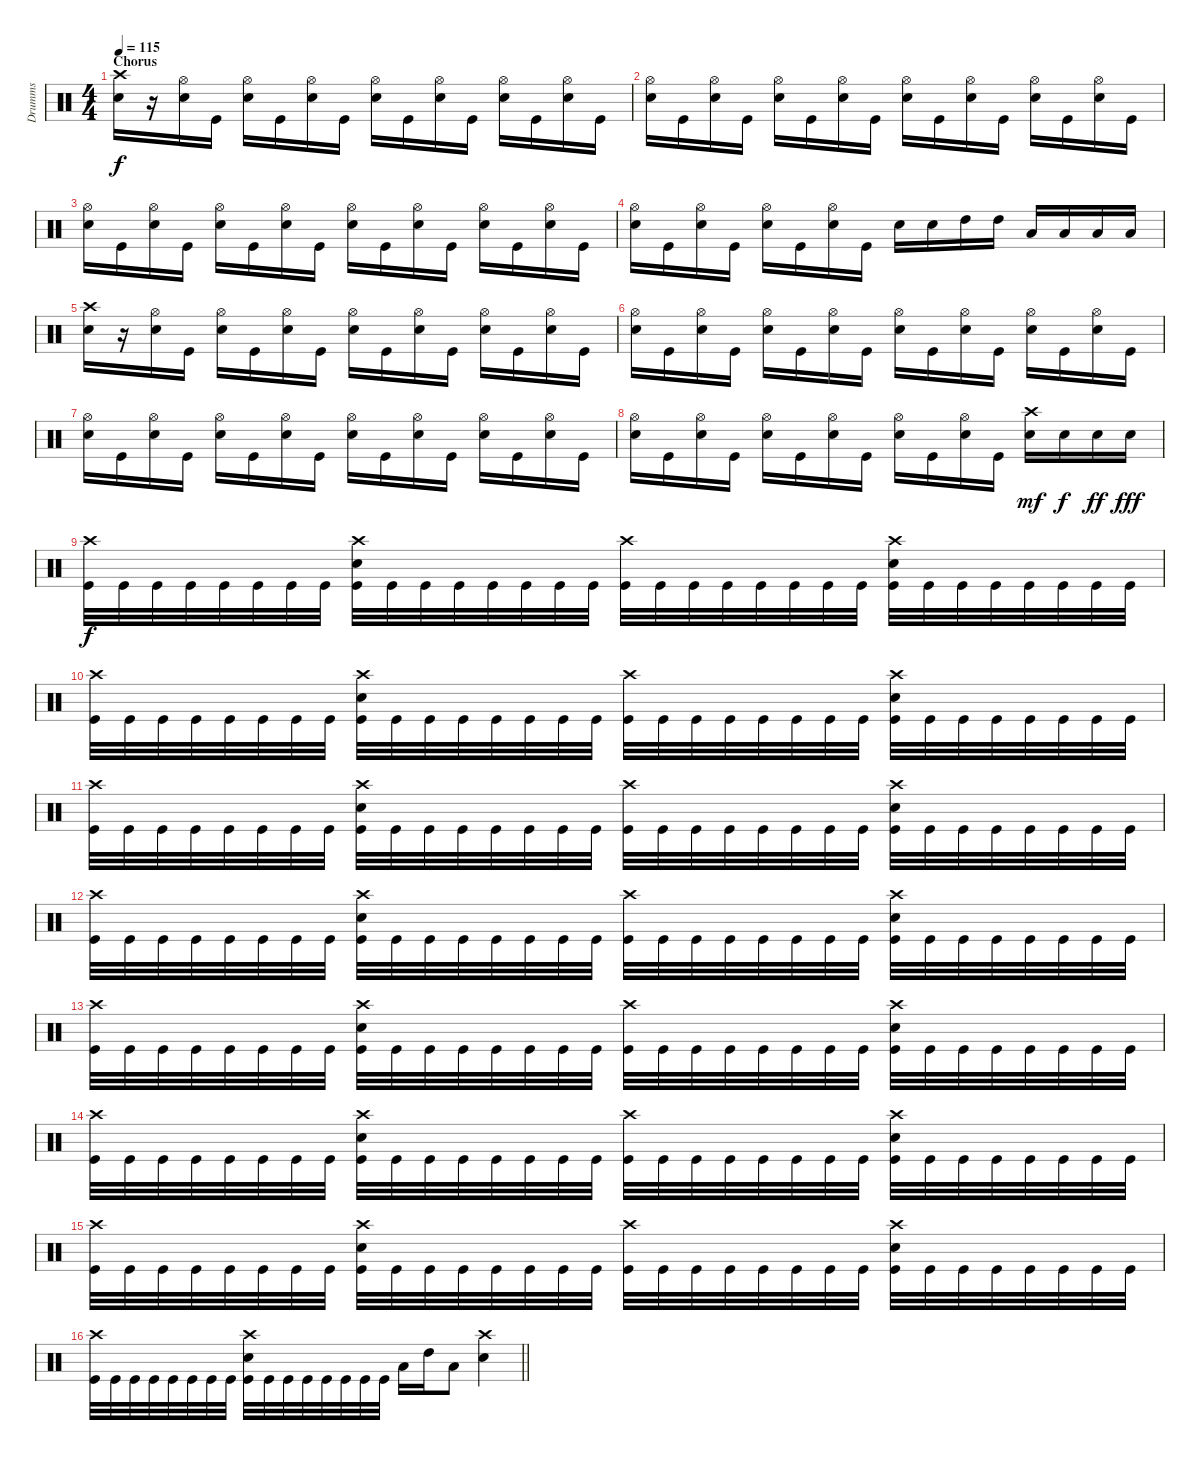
\track ("Drumms" "Drumms") {instrument percussion}
\staff {score}
\articulation defaults
\ts (4 4)
\section ("" "Chorus")
\tempo 115
\clef neutral
\ks c
("Crash high (hit)" "Snare (hit) 2").16{dy f} r.16 ("Hi-Hat (open)" "Snare (hit) 2").16 "Kick (hit)".16 ("Hi-Hat (open)" "Snare (hit) 2").16 "Kick (hit)".16 ("Hi-Hat (open)" "Snare (hit) 2").16 "Kick (hit)".16 ("Hi-Hat (open)" "Snare (hit) 2").16 "Kick (hit)".16 ("Hi-Hat (open)" "Snare (hit) 2").16 "Kick (hit)".16 ("Hi-Hat (open)" "Snare (hit) 2").16 "Kick (hit)".16 ("Hi-Hat (open)" "Snare (hit) 2").16 "Kick (hit)".16 |
("Hi-Hat (open)" "Snare (hit) 2").16 "Kick (hit)".16 ("Hi-Hat (open)" "Snare (hit) 2").16 "Kick (hit)".16 ("Hi-Hat (open)" "Snare (hit) 2").16 "Kick (hit)".16 ("Hi-Hat (open)" "Snare (hit) 2").16 "Kick (hit)".16 ("Hi-Hat (open)" "Snare (hit) 2").16 "Kick (hit)".16 ("Hi-Hat (open)" "Snare (hit) 2").16 "Kick (hit)".16 ("Hi-Hat (open)" "Snare (hit) 2").16 "Kick (hit)".16 ("Hi-Hat (open)" "Snare (hit) 2").16 "Kick (hit)".16 |
("Hi-Hat (open)" "Snare (hit) 2").16 "Kick (hit)".16 ("Hi-Hat (open)" "Snare (hit) 2").16 "Kick (hit)".16 ("Hi-Hat (open)" "Snare (hit) 2").16 "Kick (hit)".16 ("Hi-Hat (open)" "Snare (hit) 2").16 "Kick (hit)".16 ("Hi-Hat (open)" "Snare (hit) 2").16 "Kick (hit)".16 ("Hi-Hat (open)" "Snare (hit) 2").16 "Kick (hit)".16 ("Hi-Hat (open)" "Snare (hit) 2").16 "Kick (hit)".16 ("Hi-Hat (open)" "Snare (hit) 2").16 "Kick (hit)".16 |
("Hi-Hat (open)" "Snare (hit) 2").16 "Kick (hit)".16 ("Hi-Hat (open)" "Snare (hit) 2").16 "Kick (hit)".16 ("Hi-Hat (open)" "Snare (hit) 2").16 "Kick (hit)".16 ("Hi-Hat (open)" "Snare (hit) 2").16 "Kick (hit)".16 "Snare (hit) 2".16 "Snare (hit) 2".16 "High Tom (hit)".16 "High Tom (hit)".16 "Low Tom (hit)".16 "Low Tom (hit)".16 "Low Floor Tom (hit)".16 "Low Floor Tom (hit)".16 |
("Crash high (hit)" "Snare (hit) 2").16 r.16 ("Hi-Hat (open)" "Snare (hit) 2").16 "Kick (hit)".16 ("Hi-Hat (open)" "Snare (hit) 2").16 "Kick (hit)".16 ("Hi-Hat (open)" "Snare (hit) 2").16 "Kick (hit)".16 ("Hi-Hat (open)" "Snare (hit) 2").16 "Kick (hit)".16 ("Hi-Hat (open)" "Snare (hit) 2").16 "Kick (hit)".16 ("Hi-Hat (open)" "Snare (hit) 2").16 "Kick (hit)".16 ("Hi-Hat (open)" "Snare (hit) 2").16 "Kick (hit)".16 |
("Hi-Hat (open)" "Snare (hit) 2").16 "Kick (hit)".16 ("Hi-Hat (open)" "Snare (hit) 2").16 "Kick (hit)".16 ("Hi-Hat (open)" "Snare (hit) 2").16 "Kick (hit)".16 ("Hi-Hat (open)" "Snare (hit) 2").16 "Kick (hit)".16 ("Hi-Hat (open)" "Snare (hit) 2").16 "Kick (hit)".16 ("Hi-Hat (open)" "Snare (hit) 2").16 "Kick (hit)".16 ("Hi-Hat (open)" "Snare (hit) 2").16 "Kick (hit)".16 ("Hi-Hat (open)" "Snare (hit) 2").16 "Kick (hit)".16 |
("Hi-Hat (open)" "Snare (hit) 2").16 "Kick (hit)".16 ("Hi-Hat (open)" "Snare (hit) 2").16 "Kick (hit)".16 ("Hi-Hat (open)" "Snare (hit) 2").16 "Kick (hit)".16 ("Hi-Hat (open)" "Snare (hit) 2").16 "Kick (hit)".16 ("Hi-Hat (open)" "Snare (hit) 2").16 "Kick (hit)".16 ("Hi-Hat (open)" "Snare (hit) 2").16 "Kick (hit)".16 ("Hi-Hat (open)" "Snare (hit) 2").16 "Kick (hit)".16 ("Hi-Hat (open)" "Snare (hit) 2").16 "Kick (hit)".16 |
("Hi-Hat (open)" "Snare (hit) 2").16 "Kick (hit)".16 ("Hi-Hat (open)" "Snare (hit) 2").16 "Kick (hit)".16 ("Hi-Hat (open)" "Snare (hit) 2").16 "Kick (hit)".16 ("Hi-Hat (open)" "Snare (hit) 2").16 "Kick (hit)".16 ("Hi-Hat (open)" "Snare (hit) 2").16 "Kick (hit)".16 ("Hi-Hat (open)" "Snare (hit) 2").16 "Kick (hit)".16 ("Crash high (hit)" "Snare (hit) 2").16{dy mf} "Snare (hit) 2".16{dy f} "Snare (hit) 2".16{dy ff} "Snare (hit) 2".16{dy fff} |
("Crash high (hit)" "Kick (hit)").32{dy f} "Kick (hit)".32 "Kick (hit)".32 "Kick (hit)".32 "Kick (hit)".32 "Kick (hit)".32 "Kick (hit)".32 "Kick (hit)".32 ("Crash high (hit)" "Snare (hit) 2" "Kick (hit)").32 "Kick (hit)".32 "Kick (hit)".32 "Kick (hit)".32 "Kick (hit)".32 "Kick (hit)".32 "Kick (hit)".32 "Kick (hit)".32 ("Crash high (hit)" "Kick (hit)").32 "Kick (hit)".32 "Kick (hit)".32 "Kick (hit)".32 "Kick (hit)".32 "Kick (hit)".32 "Kick (hit)".32 "Kick (hit)".32 ("Crash high (hit)" "Snare (hit) 2" "Kick (hit)").32 "Kick (hit)".32 "Kick (hit)".32 "Kick (hit)".32 "Kick (hit)".32 "Kick (hit)".32 "Kick (hit)".32 "Kick (hit)".32 |
("Crash high (hit)" "Kick (hit)").32 "Kick (hit)".32 "Kick (hit)".32 "Kick (hit)".32 "Kick (hit)".32 "Kick (hit)".32 "Kick (hit)".32 "Kick (hit)".32 ("Crash high (hit)" "Snare (hit) 2" "Kick (hit)").32 "Kick (hit)".32 "Kick (hit)".32 "Kick (hit)".32 "Kick (hit)".32 "Kick (hit)".32 "Kick (hit)".32 "Kick (hit)".32 ("Crash high (hit)" "Kick (hit)").32 "Kick (hit)".32 "Kick (hit)".32 "Kick (hit)".32 "Kick (hit)".32 "Kick (hit)".32 "Kick (hit)".32 "Kick (hit)".32 ("Crash high (hit)" "Snare (hit) 2" "Kick (hit)").32 "Kick (hit)".32 "Kick (hit)".32 "Kick (hit)".32 "Kick (hit)".32 "Kick (hit)".32 "Kick (hit)".32 "Kick (hit)".32 |
("Crash high (hit)" "Kick (hit)").32 "Kick (hit)".32 "Kick (hit)".32 "Kick (hit)".32 "Kick (hit)".32 "Kick (hit)".32 "Kick (hit)".32 "Kick (hit)".32 ("Crash high (hit)" "Snare (hit) 2" "Kick (hit)").32 "Kick (hit)".32 "Kick (hit)".32 "Kick (hit)".32 "Kick (hit)".32 "Kick (hit)".32 "Kick (hit)".32 "Kick (hit)".32 ("Crash high (hit)" "Kick (hit)").32 "Kick (hit)".32 "Kick (hit)".32 "Kick (hit)".32 "Kick (hit)".32 "Kick (hit)".32 "Kick (hit)".32 "Kick (hit)".32 ("Crash high (hit)" "Snare (hit) 2" "Kick (hit)").32 "Kick (hit)".32 "Kick (hit)".32 "Kick (hit)".32 "Kick (hit)".32 "Kick (hit)".32 "Kick (hit)".32 "Kick (hit)".32 |
("Crash high (hit)" "Kick (hit)").32 "Kick (hit)".32 "Kick (hit)".32 "Kick (hit)".32 "Kick (hit)".32 "Kick (hit)".32 "Kick (hit)".32 "Kick (hit)".32 ("Crash high (hit)" "Snare (hit) 2" "Kick (hit)").32 "Kick (hit)".32 "Kick (hit)".32 "Kick (hit)".32 "Kick (hit)".32 "Kick (hit)".32 "Kick (hit)".32 "Kick (hit)".32 ("Crash high (hit)" "Kick (hit)").32 "Kick (hit)".32 "Kick (hit)".32 "Kick (hit)".32 "Kick (hit)".32 "Kick (hit)".32 "Kick (hit)".32 "Kick (hit)".32 ("Crash high (hit)" "Snare (hit) 2" "Kick (hit)").32 "Kick (hit)".32 "Kick (hit)".32 "Kick (hit)".32 "Kick (hit)".32 "Kick (hit)".32 "Kick (hit)".32 "Kick (hit)".32 |
("Crash high (hit)" "Kick (hit)").32 "Kick (hit)".32 "Kick (hit)".32 "Kick (hit)".32 "Kick (hit)".32 "Kick (hit)".32 "Kick (hit)".32 "Kick (hit)".32 ("Crash high (hit)" "Snare (hit) 2" "Kick (hit)").32 "Kick (hit)".32 "Kick (hit)".32 "Kick (hit)".32 "Kick (hit)".32 "Kick (hit)".32 "Kick (hit)".32 "Kick (hit)".32 ("Crash high (hit)" "Kick (hit)").32 "Kick (hit)".32 "Kick (hit)".32 "Kick (hit)".32 "Kick (hit)".32 "Kick (hit)".32 "Kick (hit)".32 "Kick (hit)".32 ("Crash high (hit)" "Snare (hit) 2" "Kick (hit)").32 "Kick (hit)".32 "Kick (hit)".32 "Kick (hit)".32 "Kick (hit)".32 "Kick (hit)".32 "Kick (hit)".32 "Kick (hit)".32 |
("Crash high (hit)" "Kick (hit)").32 "Kick (hit)".32 "Kick (hit)".32 "Kick (hit)".32 "Kick (hit)".32 "Kick (hit)".32 "Kick (hit)".32 "Kick (hit)".32 ("Crash high (hit)" "Snare (hit) 2" "Kick (hit)").32 "Kick (hit)".32 "Kick (hit)".32 "Kick (hit)".32 "Kick (hit)".32 "Kick (hit)".32 "Kick (hit)".32 "Kick (hit)".32 ("Crash high (hit)" "Kick (hit)").32 "Kick (hit)".32 "Kick (hit)".32 "Kick (hit)".32 "Kick (hit)".32 "Kick (hit)".32 "Kick (hit)".32 "Kick (hit)".32 ("Crash high (hit)" "Snare (hit) 2" "Kick (hit)").32 "Kick (hit)".32 "Kick (hit)".32 "Kick (hit)".32 "Kick (hit)".32 "Kick (hit)".32 "Kick (hit)".32 "Kick (hit)".32 |
("Crash high (hit)" "Kick (hit)").32 "Kick (hit)".32 "Kick (hit)".32 "Kick (hit)".32 "Kick (hit)".32 "Kick (hit)".32 "Kick (hit)".32 "Kick (hit)".32 ("Crash high (hit)" "Snare (hit) 2" "Kick (hit)").32 "Kick (hit)".32 "Kick (hit)".32 "Kick (hit)".32 "Kick (hit)".32 "Kick (hit)".32 "Kick (hit)".32 "Kick (hit)".32 ("Crash high (hit)" "Kick (hit)").32 "Kick (hit)".32 "Kick (hit)".32 "Kick (hit)".32 "Kick (hit)".32 "Kick (hit)".32 "Kick (hit)".32 "Kick (hit)".32 ("Crash high (hit)" "Snare (hit) 2" "Kick (hit)").32 "Kick (hit)".32 "Kick (hit)".32 "Kick (hit)".32 "Kick (hit)".32 "Kick (hit)".32 "Kick (hit)".32 "Kick (hit)".32 |
\barLineRight lightlight
("Crash high (hit)" "Kick (hit)").32 "Kick (hit)".32 "Kick (hit)".32 "Kick (hit)".32 "Kick (hit)".32 "Kick (hit)".32 "Kick (hit)".32 "Kick (hit)".32 ("Crash high (hit)" "Snare (hit) 2" "Kick (hit)").32 "Kick (hit)".32 "Kick (hit)".32 "Kick (hit)".32 "Kick (hit)".32 "Kick (hit)".32 "Kick (hit)".32 "Kick (hit)".32 "Low Floor Tom (hit)".16 "High Tom (hit)".16 "Low Floor Tom (hit)".8 ("Crash high (hit)" "Snare (hit) 2").4
